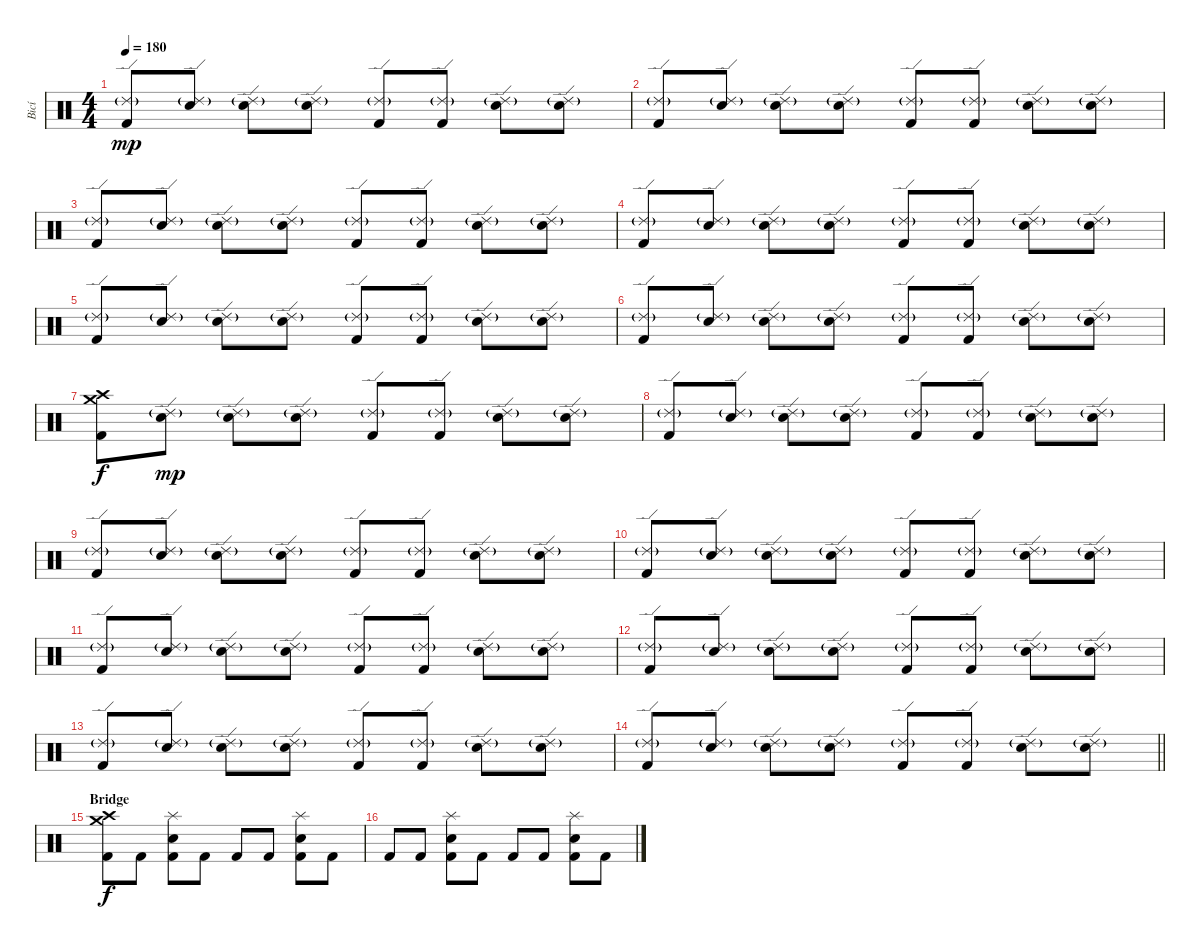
\track ("Bicí" "Bicí") {instrument percussion}
\staff {score}
\articulation defaults
\ts (4 4)
\tempo 180
\clef neutral
\ks c
("Ride (edge) 2"{g} "Kick (hit) 2").8{dy mp} ("Ride (edge) 2"{g} "Snare (hit)").8 ("Ride (edge) 2"{g} "Electric Snare (hit)").8 ("Ride (edge) 2"{g} "Snare (hit)").8 ("Ride (edge) 2"{g} "Kick (hit) 2").8 ("Ride (edge) 2"{g} "Kick (hit) 2").8 ("Ride (edge) 2"{g} "Electric Snare (hit)").8 ("Ride (edge) 2"{g} "Snare (hit)").8 |
("Ride (edge) 2"{g} "Kick (hit) 2").8 ("Ride (edge) 2"{g} "Snare (hit)").8 ("Ride (edge) 2"{g} "Electric Snare (hit)").8 ("Ride (edge) 2"{g} "Snare (hit)").8 ("Ride (edge) 2"{g} "Kick (hit) 2").8 ("Ride (edge) 2"{g} "Kick (hit) 2").8 ("Ride (edge) 2"{g} "Electric Snare (hit)").8 ("Ride (edge) 2"{g} "Snare (hit)").8 |
("Ride (edge) 2"{g} "Kick (hit) 2").8 ("Ride (edge) 2"{g} "Snare (hit)").8 ("Ride (edge) 2"{g} "Electric Snare (hit)").8 ("Ride (edge) 2"{g} "Snare (hit)").8 ("Ride (edge) 2"{g} "Kick (hit) 2").8 ("Ride (edge) 2"{g} "Kick (hit) 2").8 ("Ride (edge) 2"{g} "Electric Snare (hit)").8 ("Ride (edge) 2"{g} "Snare (hit)").8 |
("Ride (edge) 2"{g} "Kick (hit) 2").8 ("Ride (edge) 2"{g} "Snare (hit)").8 ("Ride (edge) 2"{g} "Electric Snare (hit)").8 ("Ride (edge) 2"{g} "Snare (hit)").8 ("Ride (edge) 2"{g} "Kick (hit) 2").8 ("Ride (edge) 2"{g} "Kick (hit) 2").8 ("Ride (edge) 2"{g} "Electric Snare (hit)").8 ("Ride (edge) 2"{g} "Snare (hit)").8 |
("Ride (edge) 2"{g} "Kick (hit) 2").8 ("Ride (edge) 2"{g} "Snare (hit)").8 ("Ride (edge) 2"{g} "Electric Snare (hit)").8 ("Ride (edge) 2"{g} "Snare (hit)").8 ("Ride (edge) 2"{g} "Kick (hit) 2").8 ("Ride (edge) 2"{g} "Kick (hit) 2").8 ("Ride (edge) 2"{g} "Electric Snare (hit)").8 ("Ride (edge) 2"{g} "Snare (hit)").8 |
("Ride (edge) 2"{g} "Kick (hit) 2").8 ("Ride (edge) 2"{g} "Snare (hit)").8 ("Ride (edge) 2"{g} "Electric Snare (hit)").8 ("Ride (edge) 2"{g} "Snare (hit)").8 ("Ride (edge) 2"{g} "Kick (hit) 2").8 ("Ride (edge) 2"{g} "Kick (hit) 2").8 ("Ride (edge) 2"{g} "Electric Snare (hit)").8 ("Ride (edge) 2"{g} "Snare (hit)").8 |
("Crash high (hit)" "Crash medium (hit)" "Kick (hit) 2").8{dy f} ("Ride (edge) 2"{g} "Snare (hit)").8{dy mp} ("Ride (edge) 2"{g} "Electric Snare (hit)").8 ("Ride (edge) 2"{g} "Snare (hit)").8 ("Ride (edge) 2"{g} "Kick (hit) 2").8 ("Ride (edge) 2"{g} "Kick (hit) 2").8 ("Ride (edge) 2"{g} "Electric Snare (hit)").8 ("Ride (edge) 2"{g} "Snare (hit)").8 |
("Ride (edge) 2"{g} "Kick (hit) 2").8 ("Ride (edge) 2"{g} "Snare (hit)").8 ("Ride (edge) 2"{g} "Electric Snare (hit)").8 ("Ride (edge) 2"{g} "Snare (hit)").8 ("Ride (edge) 2"{g} "Kick (hit) 2").8 ("Ride (edge) 2"{g} "Kick (hit) 2").8 ("Ride (edge) 2"{g} "Electric Snare (hit)").8 ("Ride (edge) 2"{g} "Snare (hit)").8 |
("Ride (edge) 2"{g} "Kick (hit) 2").8 ("Ride (edge) 2"{g} "Snare (hit)").8 ("Ride (edge) 2"{g} "Electric Snare (hit)").8 ("Ride (edge) 2"{g} "Snare (hit)").8 ("Ride (edge) 2"{g} "Kick (hit) 2").8 ("Ride (edge) 2"{g} "Kick (hit) 2").8 ("Ride (edge) 2"{g} "Electric Snare (hit)").8 ("Ride (edge) 2"{g} "Snare (hit)").8 |
("Ride (edge) 2"{g} "Kick (hit) 2").8 ("Ride (edge) 2"{g} "Snare (hit)").8 ("Ride (edge) 2"{g} "Electric Snare (hit)").8 ("Ride (edge) 2"{g} "Snare (hit)").8 ("Ride (edge) 2"{g} "Kick (hit) 2").8 ("Ride (edge) 2"{g} "Kick (hit) 2").8 ("Ride (edge) 2"{g} "Electric Snare (hit)").8 ("Ride (edge) 2"{g} "Snare (hit)").8 |
("Ride (edge) 2"{g} "Kick (hit) 2").8 ("Ride (edge) 2"{g} "Snare (hit)").8 ("Ride (edge) 2"{g} "Electric Snare (hit)").8 ("Ride (edge) 2"{g} "Snare (hit)").8 ("Ride (edge) 2"{g} "Kick (hit) 2").8 ("Ride (edge) 2"{g} "Kick (hit) 2").8 ("Ride (edge) 2"{g} "Electric Snare (hit)").8 ("Ride (edge) 2"{g} "Snare (hit)").8 |
("Ride (edge) 2"{g} "Kick (hit) 2").8 ("Ride (edge) 2"{g} "Snare (hit)").8 ("Ride (edge) 2"{g} "Electric Snare (hit)").8 ("Ride (edge) 2"{g} "Snare (hit)").8 ("Ride (edge) 2"{g} "Kick (hit) 2").8 ("Ride (edge) 2"{g} "Kick (hit) 2").8 ("Ride (edge) 2"{g} "Electric Snare (hit)").8 ("Ride (edge) 2"{g} "Snare (hit)").8 |
("Ride (edge) 2"{g} "Kick (hit) 2").8 ("Ride (edge) 2"{g} "Snare (hit)").8 ("Ride (edge) 2"{g} "Electric Snare (hit)").8 ("Ride (edge) 2"{g} "Snare (hit)").8 ("Ride (edge) 2"{g} "Kick (hit) 2").8 ("Ride (edge) 2"{g} "Kick (hit) 2").8 ("Ride (edge) 2"{g} "Electric Snare (hit)").8 ("Ride (edge) 2"{g} "Snare (hit)").8 |
\barLineRight lightlight
("Ride (edge) 2"{g} "Kick (hit) 2").8 ("Ride (edge) 2"{g} "Snare (hit)").8 ("Ride (edge) 2"{g} "Electric Snare (hit)").8 ("Ride (edge) 2"{g} "Snare (hit)").8 ("Ride (edge) 2"{g} "Kick (hit) 2").8 ("Ride (edge) 2"{g} "Kick (hit) 2").8 ("Ride (edge) 2"{g} "Electric Snare (hit)").8 ("Ride (edge) 2"{g} "Snare (hit)").8 |
\section ("" "Bridge")
("Crash high (hit)" "Crash medium (hit)" "Kick (hit) 2").8{dy f} "Kick (hit) 2".8 ("Splash (hit)" "Electric Snare (hit)" "Kick (hit) 2").8 "Kick (hit) 2".8 "Kick (hit) 2".8 "Kick (hit) 2".8 ("Splash (hit)" "Electric Snare (hit)" "Kick (hit) 2").8 "Kick (hit) 2".8 |
"Kick (hit) 2".8 "Kick (hit) 2".8 ("Splash (hit)" "Electric Snare (hit)" "Kick (hit) 2").8 "Kick (hit) 2".8 "Kick (hit) 2".8 "Kick (hit) 2".8 ("Splash (hit)" "Electric Snare (hit)" "Kick (hit) 2").8 "Kick (hit) 2".8
